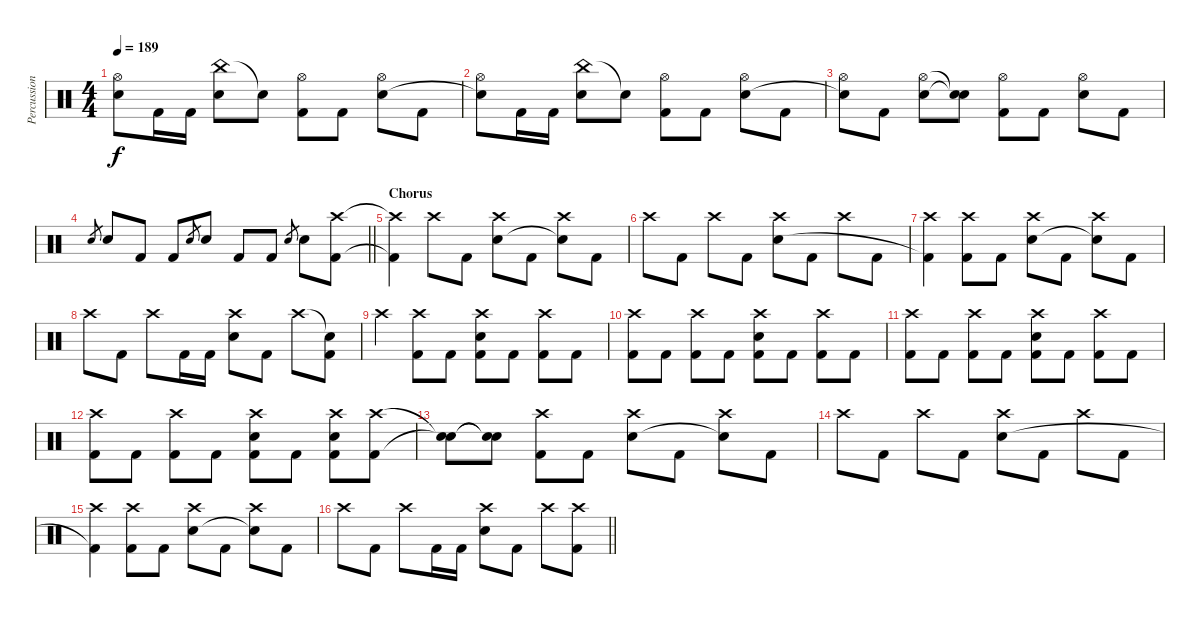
\track ("Percussion" "Percussion") {instrument percussion}
\staff {score}
\articulation defaults
\ts (4 4)
\tempo 189
\clef neutral
\ks c
("Hi-Hat (open)" "Snare (hit)"{t}).8{dy f} "Kick (hit) 2".16 "Kick (hit) 2".16 ("China (hit)" "Electric Snare (hit)").8 "Snare (hit)"{t}.8 ("Hi-Hat (open)" "Kick (hit) 2").8 "Kick (hit) 2".8 ("Hi-Hat (open)" "Electric Snare (hit)").8 "Kick (hit) 2".8 |
("Hi-Hat (open)" "Snare (hit)"{t}).8 "Kick (hit) 2".16 "Kick (hit) 2".16 ("China (hit)" "Electric Snare (hit)").8 "Snare (hit)"{t}.8 ("Hi-Hat (open)" "Kick (hit) 2").8 "Kick (hit) 2".8 ("Hi-Hat (open)" "Electric Snare (hit)").8 "Kick (hit) 2".8 |
("Hi-Hat (open)" "Snare (hit)"{t}).8 "Kick (hit) 2".8 ("Hi-Hat (open)" "Electric Snare (hit)").8 ("Snare (hit)"{t} "Snare (hit)"{t}).8 ("Hi-Hat (open)" "Kick (hit) 2").8 "Kick (hit) 2".8 ("Hi-Hat (open)" "Electric Snare (hit)").8 "Kick (hit) 2".8 |
\barLineRight lightlight "Electric Snare (hit)".8{gr} "Electric Snare (hit)".8 "Kick (hit) 2".8 "Kick (hit) 2".8 "Electric Snare (hit)".8{gr} "Electric Snare (hit)".8 "Kick (hit) 2".8 "Kick (hit) 2".8 "Electric Snare (hit)".8{gr} "Electric Snare (hit)".8
("Crash high (hit)" "Kick (hit) 2").8 |
\section ("" "Chorus")
("Crash high (hit)"{t} "Kick (hit) 2"{t}).4 "Crash high (hit)".8 "Kick (hit) 2".8 ("Crash high (hit)" "Electric Snare (hit)").8 "Kick (hit) 2".8 ("Crash high (hit)" "Snare (hit)"{t}).8 "Kick (hit) 2".8 |
"Crash high (hit)".8 "Kick (hit) 2".8 "Crash high (hit)".8 "Kick (hit) 2".8 ("Crash high (hit)" "Electric Snare (hit)").8 "Kick (hit) 2".8 "Crash high (hit)".8 "Kick (hit) 2".8 |
("Crash high (hit)" "Kick (hit) 2"{t}).4 ("Crash high (hit)" "Kick (hit) 2").8 "Kick (hit) 2".8 ("Crash high (hit)" "Electric Snare (hit)").8 "Kick (hit) 2".8 ("Crash high (hit)" "Snare (hit)"{t}).8 "Kick (hit) 2".8 |
"Crash high (hit)".8 "Kick (hit) 2".8 "Crash high (hit)".8 "Kick (hit) 2".16 "Kick (hit) 2".16 ("Crash high (hit)" "Electric Snare (hit)").8 "Kick (hit) 2".8 "Crash high (hit)".8 ("Snare (hit)"{t} "Kick (hit) 2").8 |
"Crash high (hit)".4 ("Crash high (hit)" "Kick (hit) 2").8 "Kick (hit) 2".8 ("Crash high (hit)" "Electric Snare (hit)" "Kick (hit) 2").8 "Kick (hit) 2".8 ("Crash high (hit)" "Kick (hit) 2").8 "Kick (hit) 2".8 |
("Crash high (hit)" "Kick (hit) 2").8 "Kick (hit) 2".8 ("Crash high (hit)" "Kick (hit) 2").8 "Kick (hit) 2".8 ("Crash high (hit)" "Electric Snare (hit)" "Kick (hit) 2").8 "Kick (hit) 2".8 ("Crash high (hit)" "Kick (hit) 2").8 "Kick (hit) 2".8 |
("Crash high (hit)" "Kick (hit) 2").8 "Kick (hit) 2".8 ("Crash high (hit)" "Kick (hit) 2").8 "Kick (hit) 2".8 ("Crash high (hit)" "Electric Snare (hit)" "Kick (hit) 2").8 "Kick (hit) 2".8 ("Crash high (hit)" "Kick (hit) 2").8 "Kick (hit) 2".8 |
("Crash high (hit)" "Kick (hit) 2").8 "Kick (hit) 2".8 ("Crash high (hit)" "Kick (hit) 2").8 "Kick (hit) 2".8 ("Crash high (hit)" "Electric Snare (hit)" "Kick (hit) 2").8 "Kick (hit) 2".8 ("Crash high (hit)" "Electric Snare (hit)" "Kick (hit) 2").8 ("Crash high (hit)" "Kick (hit) 2").8 |
("Snare (hit)"{t} "Snare (hit)"{t}).8 ("Snare (hit)"{t} "Snare (hit)"{t}).8 ("Crash high (hit)" "Kick (hit) 2").8 "Kick (hit) 2".8 ("Crash high (hit)" "Electric Snare (hit)").8 "Kick (hit) 2".8 ("Crash high (hit)" "Snare (hit)"{t}).8 "Kick (hit) 2".8 |
"Crash high (hit)".8 "Kick (hit) 2".8 "Crash high (hit)".8 "Kick (hit) 2".8 ("Crash high (hit)" "Electric Snare (hit)").8 "Kick (hit) 2".8 "Crash high (hit)".8 "Kick (hit) 2".8 |
("Crash high (hit)" "Kick (hit) 2"{t}).4 ("Crash high (hit)" "Kick (hit) 2").8 "Kick (hit) 2".8 ("Crash high (hit)" "Electric Snare (hit)").8 "Kick (hit) 2".8 ("Crash high (hit)" "Snare (hit)"{t}).8 "Kick (hit) 2".8 |
\barLineRight lightlight "Crash high (hit)".8 "Kick (hit) 2".8 "Crash high (hit)".8 "Kick (hit) 2".16 "Kick (hit) 2".16
("Crash high (hit)" "Electric Snare (hit)").8 "Kick (hit) 2".8 "Crash high (hit)".8 ("Crash high (hit)" "Kick (hit) 2").8
